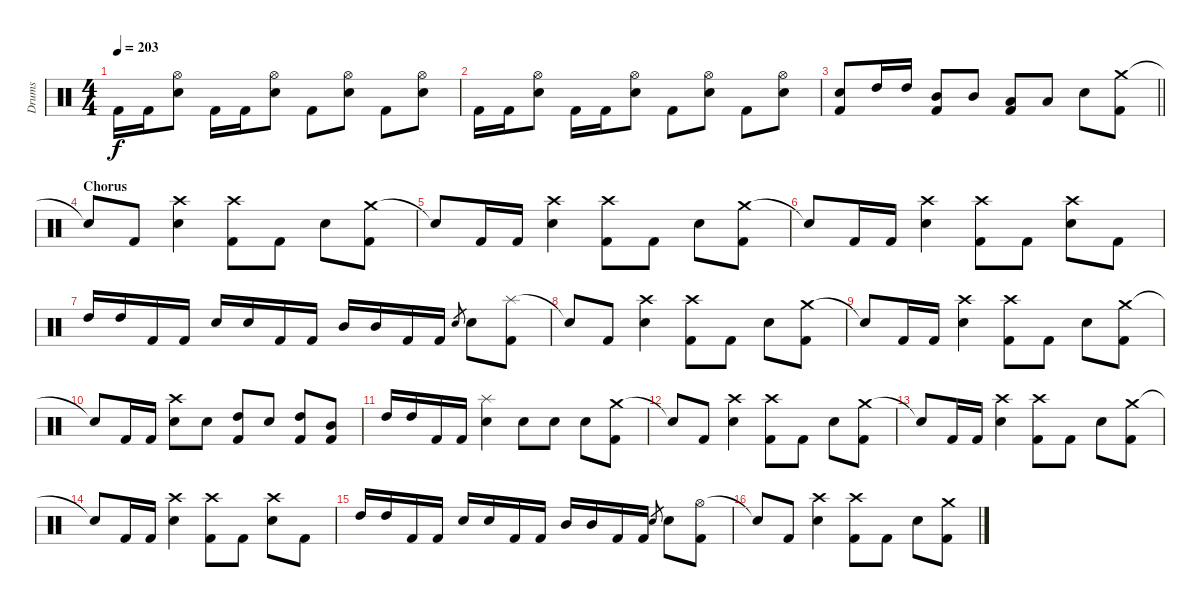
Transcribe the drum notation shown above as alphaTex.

\track ("Drums" "Drums") {instrument percussion}
\staff {score}
\articulation defaults
\ts (4 4)
\tempo 203
\clef neutral
\ks c "Kick (hit) 2".16{dy f} "Kick (hit) 2".16
("Hi-Hat (open)" "Electric Snare (hit)").8 "Kick (hit) 2".16 "Kick (hit) 2".16 ("Hi-Hat (open)" "Electric Snare (hit)").8 "Kick (hit) 2".8 ("Hi-Hat (open)" "Electric Snare (hit)").8 "Kick (hit) 2".8 ("Hi-Hat (open)" "Electric Snare (hit)").8 |
"Kick (hit) 2".16 "Kick (hit) 2".16 ("Hi-Hat (open)" "Electric Snare (hit)").8 "Kick (hit) 2".16 "Kick (hit) 2".16 ("Hi-Hat (open)" "Electric Snare (hit)").8 "Kick (hit) 2".8 ("Hi-Hat (open)" "Electric Snare (hit)").8 "Kick (hit) 2".8 ("Hi-Hat (open)" "Electric Snare (hit)").8 |
\barLineRight lightlight
("Electric Snare (hit)" "Kick (hit) 2").8 "High Tom (hit)".16 "High Tom (hit)".16 ("Mid Tom (hit)" "Kick (hit) 2").8 "Mid Tom (hit)".8 ("Low Tom (hit)" "Kick (hit) 2").8 "Low Tom (hit)".8 "Electric Snare (hit)".8 ("Crash medium (hit)" "Kick (hit) 2").8 |
\section ("" "Chorus")
"Snare (hit)"{t}.8 "Kick (hit) 2".8 ("Crash high (hit)" "Electric Snare (hit)").4 ("Crash high (hit)" "Kick (hit) 2").8 "Kick (hit) 2".8 "Electric Snare (hit)".8 ("Crash medium (hit)" "Kick (hit) 2").8 |
"Snare (hit)"{t}.8 "Kick (hit) 2".16 "Kick (hit) 2".16 ("Crash high (hit)" "Electric Snare (hit)").4 ("Crash high (hit)" "Kick (hit) 2").8 "Kick (hit) 2".8 "Electric Snare (hit)".8 ("Crash medium (hit)" "Kick (hit) 2").8 |
"Snare (hit)"{t}.8 "Kick (hit) 2".16 "Kick (hit) 2".16 ("Crash high (hit)" "Electric Snare (hit)").4 ("Crash high (hit)" "Kick (hit) 2").8 "Kick (hit) 2".8 ("Crash high (hit)" "Electric Snare (hit)").8 "Kick (hit) 2".8 |
"High Tom (hit)".16 "High Tom (hit)".16 "Kick (hit) 2".16 "Kick (hit) 2".16 "Electric Snare (hit)".16 "Electric Snare (hit)".16 "Kick (hit) 2".16 "Kick (hit) 2".16 "Mid Tom (hit)".16 "Mid Tom (hit)".16 "Kick (hit) 2".16 "Kick (hit) 2".16 "Electric Snare (hit)".8{gr} "Electric Snare (hit)".8 ("Splash (hit)" "Kick (hit) 2").8 |
"Snare (hit)"{t}.8 "Kick (hit) 2".8 ("Crash high (hit)" "Electric Snare (hit)").4 ("Crash high (hit)" "Kick (hit) 2").8 "Kick (hit) 2".8 "Electric Snare (hit)".8 ("Crash medium (hit)" "Kick (hit) 2").8 |
"Snare (hit)"{t}.8 "Kick (hit) 2".16 "Kick (hit) 2".16 ("Crash high (hit)" "Electric Snare (hit)").4 ("Crash high (hit)" "Kick (hit) 2").8 "Kick (hit) 2".8 "Electric Snare (hit)".8 ("Crash medium (hit)" "Kick (hit) 2").8 |
"Snare (hit)"{t}.8 "Kick (hit) 2".16 "Kick (hit) 2".16 ("Crash high (hit)" "Electric Snare (hit)").8 "Electric Snare (hit)".8 ("High Tom (hit)" "Kick (hit) 2").8 "Electric Snare (hit)".8 ("High Tom (hit)" "Kick (hit) 2").8 ("Mid Tom (hit)" "Kick (hit) 2").8 |
"High Tom (hit)".16 "High Tom (hit)".16 "Kick (hit) 2".16 "Kick (hit) 2".16 ("Splash (hit)" "Electric Snare (hit)").4 "Electric Snare (hit)".8 "Electric Snare (hit)".8 "Electric Snare (hit)".8 ("Crash medium (hit)" "Kick (hit) 2").8 |
"Snare (hit)"{t}.8 "Kick (hit) 2".8 ("Crash high (hit)" "Electric Snare (hit)").4 ("Crash high (hit)" "Kick (hit) 2").8 "Kick (hit) 2".8 "Electric Snare (hit)".8 ("Crash medium (hit)" "Kick (hit) 2").8 |
"Snare (hit)"{t}.8 "Kick (hit) 2".16 "Kick (hit) 2".16 ("Crash high (hit)" "Electric Snare (hit)").4 ("Crash high (hit)" "Kick (hit) 2").8 "Kick (hit) 2".8 "Electric Snare (hit)".8 ("Crash medium (hit)" "Kick (hit) 2").8 |
"Snare (hit)"{t}.8 "Kick (hit) 2".16 "Kick (hit) 2".16 ("Crash high (hit)" "Electric Snare (hit)").4 ("Crash high (hit)" "Kick (hit) 2").8 "Kick (hit) 2".8 ("Crash high (hit)" "Electric Snare (hit)").8 "Kick (hit) 2".8 |
"High Tom (hit)".16 "High Tom (hit)".16 "Kick (hit) 2".16 "Kick (hit) 2".16 "Electric Snare (hit)".16 "Electric Snare (hit)".16 "Kick (hit) 2".16 "Kick (hit) 2".16 "Mid Tom (hit)".16 "Mid Tom (hit)".16 "Kick (hit) 2".16 "Kick (hit) 2".16 "Electric Snare (hit)".8{gr} "Electric Snare (hit)".8 ("Hi-Hat (open)" "Kick (hit) 2").8 |
"Snare (hit)"{t}.8 "Kick (hit) 2".8 ("Crash high (hit)" "Electric Snare (hit)").4 ("Crash high (hit)" "Kick (hit) 2").8 "Kick (hit) 2".8 "Electric Snare (hit)".8 ("Crash medium (hit)" "Kick (hit) 2").8
